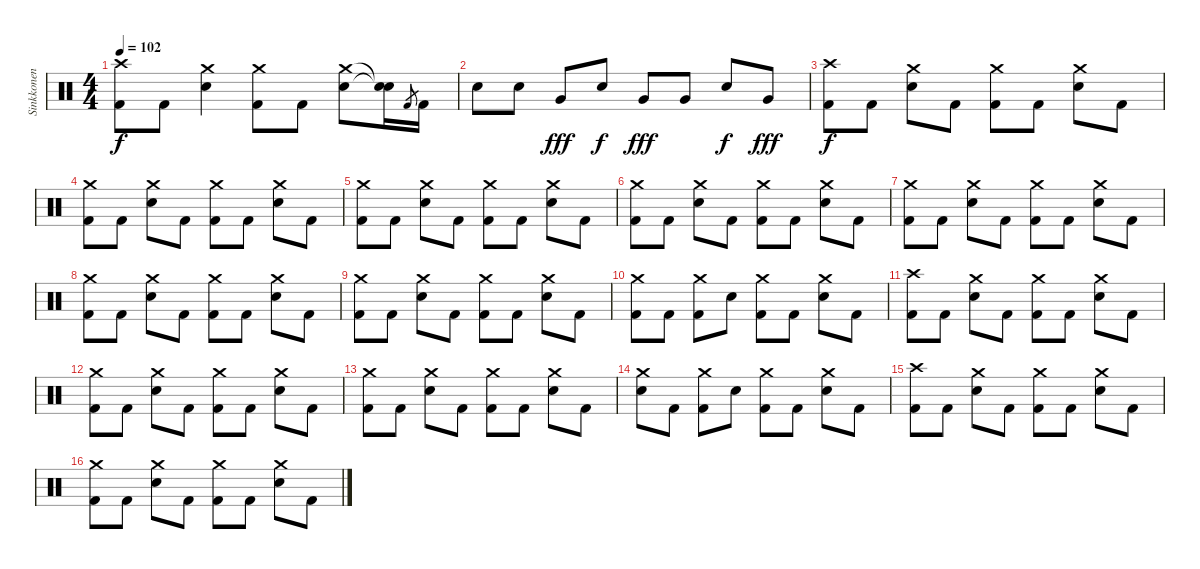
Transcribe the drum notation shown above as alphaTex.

\track ("Sinkkonen" "Sinkkonen") {instrument percussion}
\staff {score}
\articulation defaults
\ts (4 4)
\tempo 102
\clef neutral
\ks c
("Kick (hit) 2" "Crash high (hit)").8{dy f} "Kick (hit) 2".8 ("Crash medium (hit)" "Snare (hit) 2").4 ("Kick (hit) 2" "Crash medium (hit)").8 "Kick (hit) 2".8 ("Crash medium (hit)" "Snare (hit) 2").8 ("Snare (hit)"{t} "Snare (hit)"{t}).16 "Kick (hit) 2".8{gr} "Kick (hit) 2".16 |
"Snare (hit) 2".8 "Snare (hit) 2".8 "Very Low Tom (hit)".8{dy fff} "Snare (hit) 2".8{dy f} "Very Low Tom (hit)".8{dy fff} "Very Low Tom (hit)".8 "Snare (hit) 2".8{dy f} "Very Low Tom (hit)".8{dy fff} |
("Kick (hit) 2" "Crash high (hit)").8{dy f} "Kick (hit) 2".8 ("Crash medium (hit)" "Snare (hit) 2").8 "Kick (hit) 2".8 ("Kick (hit) 2" "Crash medium (hit)").8 "Kick (hit) 2".8 ("Crash medium (hit)" "Snare (hit) 2").8 "Kick (hit) 2".8 |
("Kick (hit) 2" "Crash medium (hit)").8 "Kick (hit) 2".8 ("Crash medium (hit)" "Snare (hit) 2").8 "Kick (hit) 2".8 ("Kick (hit) 2" "Crash medium (hit)").8 "Kick (hit) 2".8 ("Crash medium (hit)" "Snare (hit) 2").8 "Kick (hit) 2".8 |
("Kick (hit) 2" "Crash medium (hit)").8 "Kick (hit) 2".8 ("Crash medium (hit)" "Snare (hit) 2").8 "Kick (hit) 2".8 ("Kick (hit) 2" "Crash medium (hit)").8 "Kick (hit) 2".8 ("Crash medium (hit)" "Snare (hit) 2").8 "Kick (hit) 2".8 |
("Kick (hit) 2" "Crash medium (hit)").8 "Kick (hit) 2".8 ("Crash medium (hit)" "Snare (hit) 2").8 "Kick (hit) 2".8 ("Kick (hit) 2" "Crash medium (hit)").8 "Kick (hit) 2".8 ("Crash medium (hit)" "Snare (hit) 2").8 "Kick (hit) 2".8 |
("Kick (hit) 2" "Crash medium (hit)").8 "Kick (hit) 2".8 ("Crash medium (hit)" "Snare (hit) 2").8 "Kick (hit) 2".8 ("Kick (hit) 2" "Crash medium (hit)").8 "Kick (hit) 2".8 ("Crash medium (hit)" "Snare (hit) 2").8 "Kick (hit) 2".8 |
("Kick (hit) 2" "Crash medium (hit)").8 "Kick (hit) 2".8 ("Crash medium (hit)" "Snare (hit) 2").8 "Kick (hit) 2".8 ("Kick (hit) 2" "Crash medium (hit)").8 "Kick (hit) 2".8 ("Crash medium (hit)" "Snare (hit) 2").8 "Kick (hit) 2".8 |
("Kick (hit) 2" "Crash medium (hit)").8 "Kick (hit) 2".8 ("Crash medium (hit)" "Snare (hit) 2").8 "Kick (hit) 2".8 ("Kick (hit) 2" "Crash medium (hit)").8 "Kick (hit) 2".8 ("Crash medium (hit)" "Snare (hit) 2").8 "Kick (hit) 2".8 |
("Kick (hit) 2" "Crash medium (hit)").8 "Kick (hit) 2".8 ("Kick (hit) 2" "Crash medium (hit)").8 "Snare (hit) 2".8 ("Kick (hit) 2" "Crash medium (hit)").8 "Kick (hit) 2".8 ("Crash medium (hit)" "Snare (hit) 2").8 "Kick (hit) 2".8 |
("Kick (hit) 2" "Crash high (hit)").8 "Kick (hit) 2".8 ("Crash medium (hit)" "Snare (hit) 2").8 "Kick (hit) 2".8 ("Kick (hit) 2" "Crash medium (hit)").8 "Kick (hit) 2".8 ("Crash medium (hit)" "Snare (hit) 2").8 "Kick (hit) 2".8 |
("Kick (hit) 2" "Crash medium (hit)").8 "Kick (hit) 2".8 ("Crash medium (hit)" "Snare (hit) 2").8 "Kick (hit) 2".8 ("Kick (hit) 2" "Crash medium (hit)").8 "Kick (hit) 2".8 ("Crash medium (hit)" "Snare (hit) 2").8 "Kick (hit) 2".8 |
("Kick (hit) 2" "Crash medium (hit)").8 "Kick (hit) 2".8 ("Crash medium (hit)" "Snare (hit) 2").8 "Kick (hit) 2".8 ("Kick (hit) 2" "Crash medium (hit)").8 "Kick (hit) 2".8 ("Crash medium (hit)" "Snare (hit) 2").8 "Kick (hit) 2".8 |
("Crash medium (hit)" "Snare (hit) 2").8 "Kick (hit) 2".8 ("Kick (hit) 2" "Crash medium (hit)").8 "Snare (hit) 2".8 ("Kick (hit) 2" "Crash medium (hit)").8 "Kick (hit) 2".8 ("Crash medium (hit)" "Snare (hit) 2").8 "Kick (hit) 2".8 |
("Kick (hit) 2" "Crash high (hit)").8 "Kick (hit) 2".8 ("Crash medium (hit)" "Snare (hit) 2").8 "Kick (hit) 2".8 ("Kick (hit) 2" "Crash medium (hit)").8 "Kick (hit) 2".8 ("Crash medium (hit)" "Snare (hit) 2").8 "Kick (hit) 2".8 |
("Kick (hit) 2" "Crash medium (hit)").8 "Kick (hit) 2".8 ("Crash medium (hit)" "Snare (hit) 2").8 "Kick (hit) 2".8 ("Kick (hit) 2" "Crash medium (hit)").8 "Kick (hit) 2".8 ("Crash medium (hit)" "Snare (hit) 2").8 "Kick (hit) 2".8
